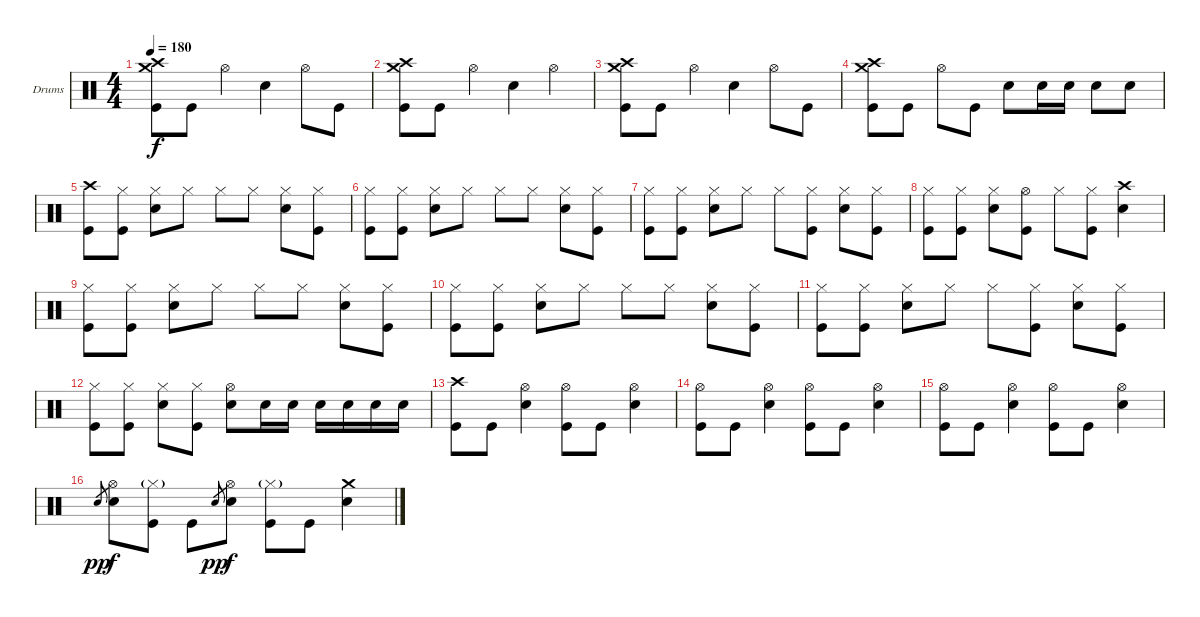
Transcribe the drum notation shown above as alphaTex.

\defaultSystemsLayout 4
\bracketExtendMode groupsimilarinstruments
\firstSystemTrackNameOrientation horizontal
\otherSystemsTrackNameOrientation horizontal
\track ("Барабаны" "Drums") {instrument percussion}
\staff {score}
\articulation defaults
\ts (4 4)
\tempo 180
\clef neutral
\scale
0.333333
\ks c
("Crash medium (hit)" "Crash high (hit)" "Kick (hit)").8{dy f} "Kick (hit)".8 "Hi-Hat (open)".4 "Snare (hit) 2".4 "Hi-Hat (open)".8 "Kick (hit)".8 |
\scale
0.333333 ("Crash medium (hit)" "Crash high (hit)" "Kick (hit)").8 "Kick (hit)".8 "Hi-Hat (open)".4 "Snare (hit) 2".4 "Hi-Hat (open)".4 |
\scale
0.333333 ("Crash medium (hit)" "Crash high (hit)" "Kick (hit)").8 "Kick (hit)".8 "Hi-Hat (open)".4 "Snare (hit) 2".4 "Hi-Hat (open)".8 "Kick (hit)".8 |
\scale
0.333333 ("Crash high (hit)" "Crash medium (hit)" "Kick (hit)").8 "Kick (hit)".8 "Hi-Hat (open)".8 "Kick (hit)".8 "Snare (hit) 2".8 "Snare (hit) 2".16 "Snare (hit) 2".16 "Snare (hit) 2".8 "Snare (hit) 2".8 |
\scale
0.333333 ("Crash high (hit)" "Kick (hit)").8 ("Hi-Hat (closed)" "Kick (hit)").8 ("Hi-Hat (closed)" "Snare (hit) 2").8 "Hi-Hat (closed)".8 "Hi-Hat (closed)".8 "Hi-Hat (closed)".8 ("Hi-Hat (closed)" "Snare (hit) 2").8 ("Hi-Hat (closed)" "Kick (hit)").8 |
\scale
0.333333 ("Hi-Hat (closed)" "Kick (hit)").8 ("Hi-Hat (closed)" "Kick (hit)").8 ("Hi-Hat (closed)" "Snare (hit) 2").8 "Hi-Hat (closed)".8 "Hi-Hat (closed)".8 "Hi-Hat (closed)".8 ("Hi-Hat (closed)" "Snare (hit) 2").8 ("Hi-Hat (closed)" "Kick (hit)").8 |
\scale
0.333333 ("Hi-Hat (closed)" "Kick (hit)").8 ("Hi-Hat (closed)" "Kick (hit)").8 ("Hi-Hat (closed)" "Snare (hit) 2").8 "Hi-Hat (closed)".8 "Hi-Hat (closed)".8 ("Hi-Hat (closed)" "Kick (hit)").8 ("Hi-Hat (closed)" "Snare (hit) 2").8 ("Hi-Hat (closed)" "Kick (hit)").8 |
\scale
0.333333 ("Hi-Hat (closed)" "Kick (hit)").8 ("Hi-Hat (closed)" "Kick (hit)").8 ("Hi-Hat (closed)" "Snare (hit) 2").8 ("Hi-Hat (open)" "Kick (hit)").8 "Hi-Hat (closed)".8 ("Hi-Hat (closed)" "Kick (hit)").8 ("Crash high (hit)" "Snare (hit) 2").4 |
\scale
0.333333 ("Hi-Hat (closed)" "Kick (hit)").8 ("Hi-Hat (closed)" "Kick (hit)").8 ("Hi-Hat (closed)" "Snare (hit) 2").8 "Hi-Hat (closed)".8 "Hi-Hat (closed)".8 "Hi-Hat (closed)".8 ("Hi-Hat (closed)" "Snare (hit) 2").8 ("Hi-Hat (closed)" "Kick (hit)").8 |
\scale
0.333333 ("Hi-Hat (closed)" "Kick (hit)").8 ("Hi-Hat (closed)" "Kick (hit)").8 ("Hi-Hat (closed)" "Snare (hit) 2").8 "Hi-Hat (closed)".8 "Hi-Hat (closed)".8 "Hi-Hat (closed)".8 ("Hi-Hat (closed)" "Snare (hit) 2").8 ("Hi-Hat (closed)" "Kick (hit)").8 |
\scale
0.333333 ("Hi-Hat (closed)" "Kick (hit)").8 ("Hi-Hat (closed)" "Kick (hit)").8 ("Hi-Hat (closed)" "Snare (hit) 2").8 "Hi-Hat (closed)".8 "Hi-Hat (closed)".8 ("Hi-Hat (closed)" "Kick (hit)").8 ("Hi-Hat (closed)" "Snare (hit) 2").8 ("Hi-Hat (closed)" "Kick (hit)").8 |
\scale
0.333333 ("Hi-Hat (closed)" "Kick (hit)").8 ("Hi-Hat (closed)" "Kick (hit)").8 ("Hi-Hat (closed)" "Snare (hit) 2").8 ("Hi-Hat (closed)" "Kick (hit)").8 ("Hi-Hat (open)" "Snare (hit) 2").8 "Snare (hit) 2".16 "Snare (hit) 2".16 "Snare (hit) 2".16 "Snare (hit) 2".16 "Snare (hit) 2".16 "Snare (hit) 2".16 |
\scale
0.333333 ("Crash high (hit)" "Kick (hit)").8 "Kick (hit)".8 ("Hi-Hat (open)" "Snare (hit) 2").4 ("Hi-Hat (open)" "Kick (hit)").8 "Kick (hit)".8 ("Hi-Hat (open)" "Snare (hit) 2").4 |
\scale
0.333333 ("Hi-Hat (open)" "Kick (hit)").8 "Kick (hit)".8 ("Hi-Hat (open)" "Snare (hit) 2").4 ("Hi-Hat (open)" "Kick (hit)").8 "Kick (hit)".8 ("Hi-Hat (open)" "Snare (hit) 2").4 |
\scale
0.333333 ("Hi-Hat (open)" "Kick (hit)").8 "Kick (hit)".8 ("Hi-Hat (open)" "Snare (hit) 2").4 ("Hi-Hat (open)" "Kick (hit)").8 "Kick (hit)".8 ("Hi-Hat (open)" "Snare (hit) 2").4 |
\scale
0.333333 "Snare (hit) 2".8{gr dy pp} ("Hi-Hat (open)" "Snare (hit) 2").8{dy f} ("Hi-Hat (closed)"{g} "Kick (hit)").8 "Kick (hit)".8 "Snare (hit) 2".8{gr dy pp} ("Hi-Hat (open)" "Snare (hit) 2").8{dy f} ("Hi-Hat (closed)"{g} "Kick (hit)").8 "Kick (hit)".8 ("Crash medium (hit)" "Snare (hit) 2").4
